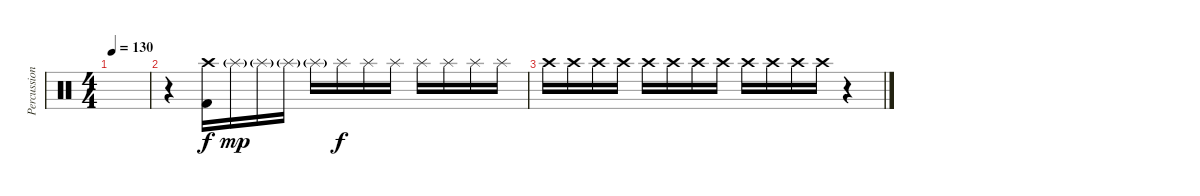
\track ("Percussion" "Percussion") {instrument percussion}
\staff {score}
\articulation defaults
\ts (4 4)
\tempo 130
\clef neutral
\ks c
|
r.4 ("Crash high (hit)" "Kick (hit) 2").16 "Splash (hit)"{g}.16{dy mp} "Splash (hit)"{g}.16 "Splash (hit)"{g}.16 "Splash (hit)"{g}.16 "Splash (hit)".16{dy f} "Splash (hit)".16 "Splash (hit)".16 "Splash (hit)".16 "Splash (hit)".16 "Splash (hit)".16 "Splash (hit)".16 |
"Crash high (hit)".16 "Crash high (hit)".16 "Crash high (hit)".16 "Crash high (hit)".16 "Crash high (hit)".16 "Crash high (hit)".16 "Crash high (hit)".16 "Crash high (hit)".16 "Crash high (hit)".16 "Crash high (hit)".16 "Crash high (hit)".16 "Crash high (hit)".16 r.4
